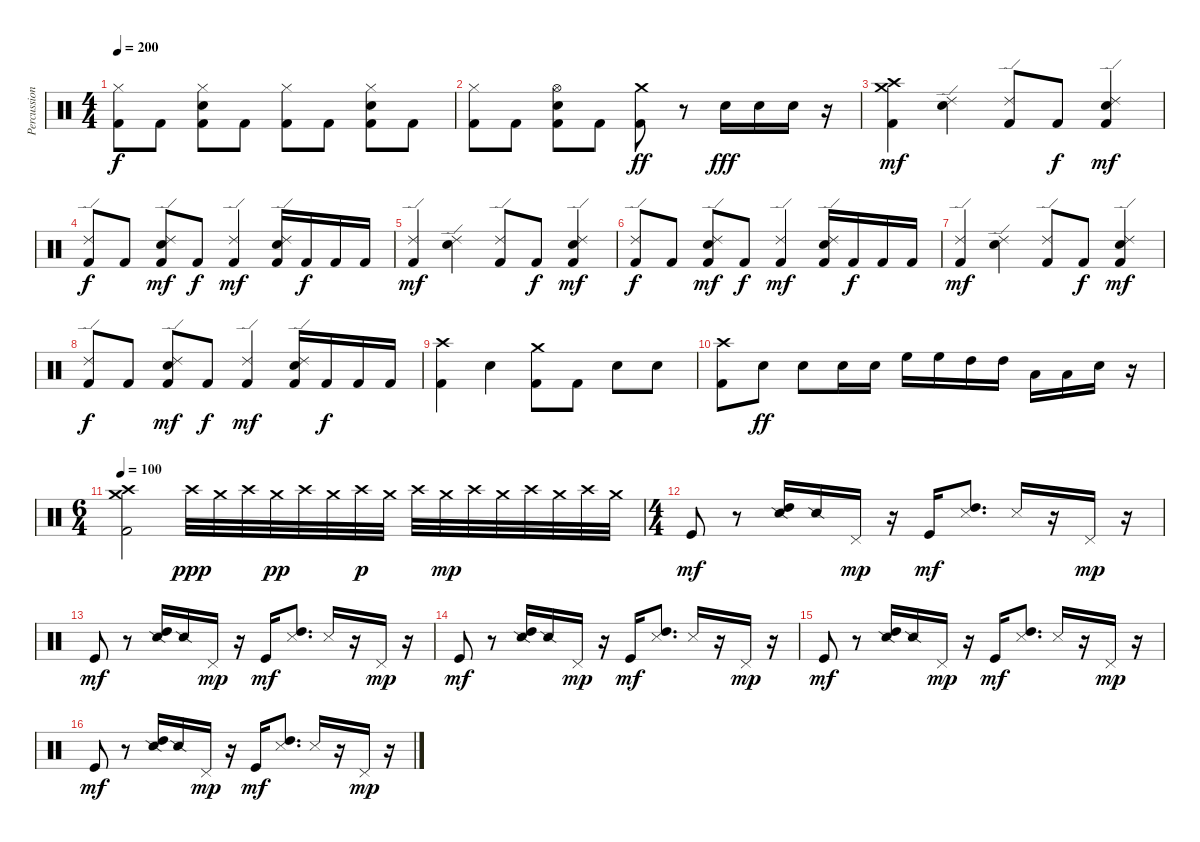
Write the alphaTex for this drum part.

\track ("Percussion" "Percussion") {instrument percussion}
\staff {score}
\articulation defaults
\ts (4 4)
\tempo 200
\clef neutral
\ks c
("Hi-Hat (closed)" "Kick (hit) 2").8{dy f} "Kick (hit) 2".8 ("Hi-Hat (closed)" "Snare (hit) 2" "Kick (hit) 2").8 "Kick (hit) 2".8 ("Hi-Hat (closed)" "Kick (hit) 2").8 "Kick (hit) 2".8 ("Hi-Hat (closed)" "Snare (hit) 2" "Kick (hit) 2").8 "Kick (hit) 2".8 |
("Hi-Hat (closed)" "Kick (hit) 2").8 "Kick (hit) 2".8 ("Hi-Hat (open)" "Snare (hit) 2" "Kick (hit) 2").8 "Kick (hit) 2".8 ("Crash medium (hit)" "Kick (hit) 2").8{dy ff} r.8 "Snare (hit) 2".16{dy fff} "Snare (hit) 2".16 "Snare (hit) 2".16 r.16 |
("Crash high (hit)" "Crash medium (hit)" "Kick (hit) 2").4{dy mf} ("Ride (edge) 2" "Snare (hit) 2").4 ("Ride (edge) 2" "Kick (hit) 2").8 "Kick (hit) 2".8{dy f} ("Ride (edge) 2" "Snare (hit) 2" "Kick (hit) 2").4{dy mf} |
("Ride (edge) 2" "Kick (hit) 2").8{dy f} "Kick (hit) 2".8 ("Ride (edge) 2" "Snare (hit) 2" "Kick (hit) 2").8{dy mf} "Kick (hit) 2".8{dy f} ("Ride (edge) 2" "Kick (hit) 2").4{dy mf} ("Ride (edge) 2" "Snare (hit) 2" "Kick (hit) 2").16 "Kick (hit) 2".16{dy f} "Kick (hit) 2".16 "Kick (hit) 2".16 |
("Ride (edge) 2" "Kick (hit) 2").4{dy mf} ("Ride (edge) 2" "Snare (hit) 2").4 ("Ride (edge) 2" "Kick (hit) 2").8 "Kick (hit) 2".8{dy f} ("Ride (edge) 2" "Snare (hit) 2" "Kick (hit) 2").4{dy mf} |
("Ride (edge) 2" "Kick (hit) 2").8{dy f} "Kick (hit) 2".8 ("Ride (edge) 2" "Snare (hit) 2" "Kick (hit) 2").8{dy mf} "Kick (hit) 2".8{dy f} ("Ride (edge) 2" "Kick (hit) 2").4{dy mf} ("Ride (edge) 2" "Snare (hit) 2" "Kick (hit) 2").16 "Kick (hit) 2".16{dy f} "Kick (hit) 2".16 "Kick (hit) 2".16 |
("Ride (edge) 2" "Kick (hit) 2").4{dy mf} ("Ride (edge) 2" "Snare (hit) 2").4 ("Ride (edge) 2" "Kick (hit) 2").8 "Kick (hit) 2".8{dy f} ("Ride (edge) 2" "Snare (hit) 2" "Kick (hit) 2").4{dy mf} |
("Ride (edge) 2" "Kick (hit) 2").8{dy f} "Kick (hit) 2".8 ("Ride (edge) 2" "Snare (hit) 2" "Kick (hit) 2").8{dy mf} "Kick (hit) 2".8{dy f} ("Ride (edge) 2" "Kick (hit) 2").4{dy mf} ("Ride (edge) 2" "Snare (hit) 2" "Kick (hit) 2").16 "Kick (hit) 2".16{dy f} "Kick (hit) 2".16 "Kick (hit) 2".16 |
("Crash high (hit)" "Kick (hit) 2").4 "Snare (hit) 2".4 ("Crash medium (hit)" "Kick (hit) 2").8 "Kick (hit) 2".8 "Snare (hit) 2".8 "Snare (hit) 2".8 |
("Crash high (hit)" "Kick (hit) 2").8 "Snare (hit) 2".8{dy ff} "Snare (hit) 2".8 "Snare (hit) 2".16 "Snare (hit) 2".16 "High Floor Tom (hit)".16 "High Floor Tom (hit)".16 "High Tom (hit)".16 "High Tom (hit)".16 "Low Tom (hit)".16 "Low Tom (hit)".16 "Snare (hit) 2".16 r.16 |
\ts (6 4)
\tempo 100
("Crash high (hit)" "Crash medium (hit)" "Kick (hit) 2").2 "Crash high (hit)".32{dy ppp} "Crash medium (hit)".32 "Crash high (hit)".32 "Crash medium (hit)".32{dy pp} "Crash high (hit)".32 "Crash medium (hit)".32 "Crash high (hit)".32{dy p} "Crash medium (hit)".32 "Crash high (hit)".32 "Crash medium (hit)".32{dy mp} "Crash high (hit)".32 "Crash medium (hit)".32 "Crash high (hit)".32 "Crash medium (hit)".32 "Crash high (hit)".32 "Crash medium (hit)".32 |
\ts (4 4)
"Kick (hit)".8{dy mf} r.8 ("High Tom (hit)" "Snare (side stick) 2").16 "Snare (side stick) 2".16 "Pedal Hi-Hat (hit)".16{dy mp} r.16 "Kick (hit)".16{dy mf} ("High Tom (hit)" "Snare (side stick) 3").8{d} "Snare (side stick) 3".16 r.16 "Pedal Hi-Hat (hit)".16{dy mp} r.16 |
"Kick (hit)".8{dy mf} r.8 ("High Tom (hit)" "Snare (side stick) 2").16 "Snare (side stick) 2".16 "Pedal Hi-Hat (hit)".16{dy mp} r.16 "Kick (hit)".16{dy mf} ("High Tom (hit)" "Snare (side stick) 3").8{d} "Snare (side stick) 3".16 r.16 "Pedal Hi-Hat (hit)".16{dy mp} r.16 |
"Kick (hit)".8{dy mf} r.8 ("High Tom (hit)" "Snare (side stick) 2").16 "Snare (side stick) 2".16 "Pedal Hi-Hat (hit)".16{dy mp} r.16 "Kick (hit)".16{dy mf} ("High Tom (hit)" "Snare (side stick) 3").8{d} "Snare (side stick) 3".16 r.16 "Pedal Hi-Hat (hit)".16{dy mp} r.16 |
"Kick (hit)".8{dy mf} r.8 ("High Tom (hit)" "Snare (side stick) 2").16 "Snare (side stick) 2".16 "Pedal Hi-Hat (hit)".16{dy mp} r.16 "Kick (hit)".16{dy mf} ("High Tom (hit)" "Snare (side stick) 3").8{d} "Snare (side stick) 3".16 r.16 "Pedal Hi-Hat (hit)".16{dy mp} r.16 |
"Kick (hit)".8{dy mf} r.8 ("High Tom (hit)" "Snare (side stick) 2").16 "Snare (side stick) 2".16 "Pedal Hi-Hat (hit)".16{dy mp} r.16 "Kick (hit)".16{dy mf} ("High Tom (hit)" "Snare (side stick) 3").8{d} "Snare (side stick) 3".16 r.16 "Pedal Hi-Hat (hit)".16{dy mp} r.16
